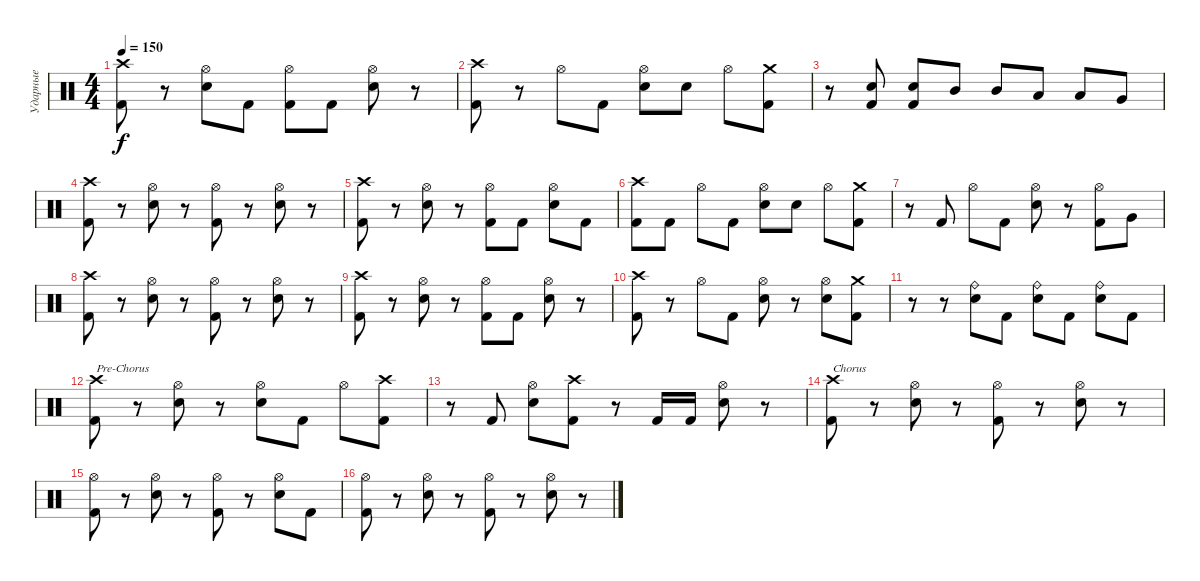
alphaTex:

\track ("Ударные" "Ударные") {instrument percussion}
\staff
\articulation defaults
\ts (4 4)
\tempo 150
\clef neutral
\ks c
("Kick (hit) 2" "Crash high (hit)").8{dy f} r.8 ("Snare (hit) 2" "Hi-Hat (open)").8 "Kick (hit) 2".8 ("Kick (hit) 2" "Hi-Hat (open)").8 "Kick (hit) 2".8 ("Snare (hit) 2" "Hi-Hat (open)").8 r.8 |
("Kick (hit) 2" "Crash high (hit)").8 r.8 "Hi-Hat (open)".8 "Kick (hit) 2".8 ("Snare (hit) 2" "Hi-Hat (open)").8 "Snare (hit) 2".8 "Hi-Hat (open)".8 ("Kick (hit) 2" "Crash medium (hit)").8 |
r.8 ("Kick (hit) 2" "Snare (hit) 2").8 ("Kick (hit) 2" "Snare (hit) 2").8 "Mid Tom (hit)".8 "Mid Tom (hit)".8 "Low Tom (hit)".8 "Low Tom (hit)".8 "Very Low Tom (hit)".8 |
("Kick (hit) 2" "Crash high (hit)").8 r.8 ("Snare (hit) 2" "Hi-Hat (open)").8 r.8 ("Kick (hit) 2" "Hi-Hat (open)").8 r.8 ("Snare (hit) 2" "Hi-Hat (open)").8 r.8 |
("Kick (hit) 2" "Crash high (hit)").8 r.8 ("Snare (hit) 2" "Hi-Hat (open)").8 r.8 ("Kick (hit) 2" "Hi-Hat (open)").8 "Kick (hit) 2".8 ("Snare (hit) 2" "Hi-Hat (open)").8 "Kick (hit) 2".8 |
("Kick (hit) 2" "Crash high (hit)").8 "Kick (hit) 2".8 "Hi-Hat (open)".8 "Kick (hit) 2".8 ("Snare (hit) 2" "Hi-Hat (open)").8 "Snare (hit) 2".8 "Hi-Hat (open)".8 ("Kick (hit) 2" "Crash medium (hit)").8 |
r.8 "Kick (hit) 2".8 "Hi-Hat (open)".8 "Kick (hit) 2".8 ("Snare (hit) 2" "Hi-Hat (open)").8 r.8 ("Kick (hit) 2" "Hi-Hat (open)").8 "Very Low Tom (hit)".8 |
("Kick (hit) 2" "Crash high (hit)").8 r.8 ("Snare (hit) 2" "Hi-Hat (open)").8 r.8 ("Kick (hit) 2" "Hi-Hat (open)").8 r.8 ("Snare (hit) 2" "Hi-Hat (open)").8 r.8 |
("Kick (hit) 2" "Crash high (hit)").8 r.8 ("Snare (hit) 2" "Hi-Hat (open)").8 r.8 ("Kick (hit) 2" "Hi-Hat (open)").8 "Kick (hit) 2".8 ("Snare (hit) 2" "Hi-Hat (open)").8 r.8 |
("Kick (hit) 2" "Crash high (hit)").8 r.8 "Hi-Hat (open)".8 "Kick (hit) 2".8 ("Snare (hit) 2" "Hi-Hat (open)").8 r.8 ("Snare (hit) 2" "Hi-Hat (open)").8 ("Kick (hit) 2" "Crash medium (hit)").8 |
r.8 r.8 ("Snare (hit) 2" "Ride (bell)").8 "Kick (hit) 2".8 ("Snare (hit) 2" "Ride (bell)").8 "Kick (hit) 2".8 ("Snare (hit) 2" "Ride (bell)").8 "Kick (hit) 2".8 |
("Kick (hit) 2" "Crash high (hit)").8{txt "Pre-Chorus"} r.8 ("Snare (hit) 2" "Hi-Hat (open)").8 r.8 ("Snare (hit) 2" "Hi-Hat (open)").8 "Kick (hit) 2".8 "Hi-Hat (open)".8 ("Kick (hit) 2" "Crash high (hit)").8 |
r.8 "Kick (hit) 2".8 ("Snare (hit) 2" "Hi-Hat (open)").8 ("Kick (hit) 2" "Crash high (hit)").8 r.8 "Kick (hit) 2".16 "Kick (hit) 2".16 ("Snare (hit) 2" "Hi-Hat (open)").8 r.8 |
("Kick (hit) 2" "Crash high (hit)").8{txt "Chorus"} r.8 ("Snare (hit) 2" "Hi-Hat (open)").8 r.8 ("Kick (hit) 2" "Hi-Hat (open)").8 r.8 ("Snare (hit) 2" "Hi-Hat (open)").8 r.8 |
("Kick (hit) 2" "Hi-Hat (open)").8 r.8 ("Snare (hit) 2" "Hi-Hat (open)").8 r.8 ("Kick (hit) 2" "Hi-Hat (open)").8 r.8 ("Snare (hit) 2" "Hi-Hat (open)").8 "Kick (hit) 2".8 |
("Kick (hit) 2" "Hi-Hat (open)").8 r.8 ("Snare (hit) 2" "Hi-Hat (open)").8 r.8 ("Kick (hit) 2" "Hi-Hat (open)").8 r.8 ("Snare (hit) 2" "Hi-Hat (open)").8 r.8
